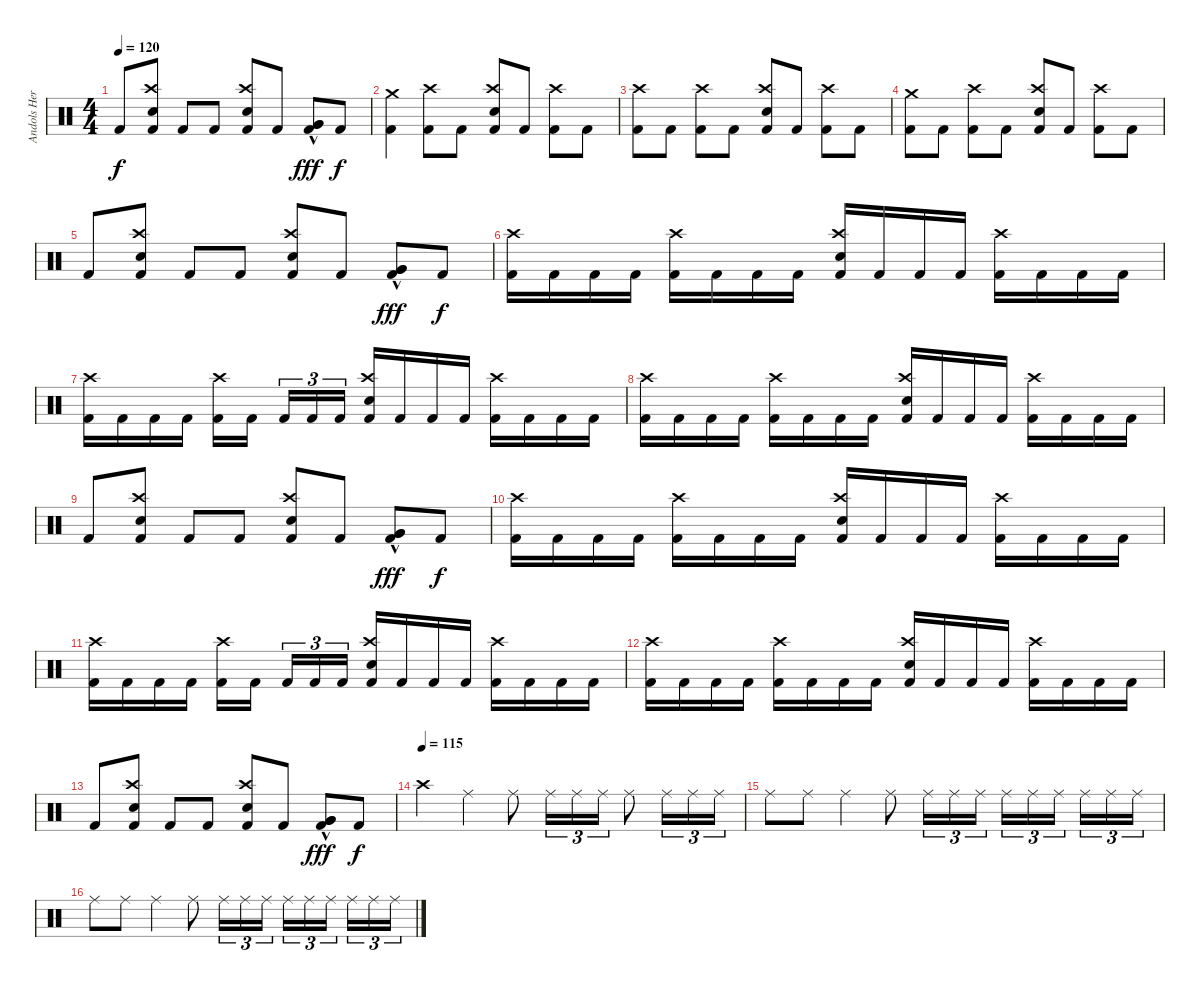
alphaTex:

\track ("Andols Herrick" "Andols Her") {instrument percussion}
\staff {score}
\articulation defaults
\ts (4 4)
\tempo 120
\clef neutral
\ks c "Kick (hit) 2".8{dy f}
("Crash high (hit)" "Electric Snare (hit)" "Kick (hit) 2").8 "Kick (hit) 2".8 "Kick (hit) 2".8 ("Crash high (hit)" "Electric Snare (hit)" "Kick (hit) 2").8 "Kick (hit) 2".8 ("Very Low Tom (hit)"{hac} "Very Low Tom (hit)"{hac} "Kick (hit) 2").8{dy fff} "Kick (hit) 2".8{dy f} |
("Crash medium (hit)" "Kick (hit) 2").4 ("Crash high (hit)" "Kick (hit) 2").8 "Kick (hit) 2".8 ("Crash high (hit)" "Electric Snare (hit)" "Kick (hit) 2").8 "Kick (hit) 2".8 ("Crash high (hit)" "Kick (hit) 2").8 "Kick (hit) 2".8 |
("Crash high (hit)" "Kick (hit) 2").8 "Kick (hit) 2".8 ("Crash high (hit)" "Kick (hit) 2").8 "Kick (hit) 2".8 ("Crash high (hit)" "Electric Snare (hit)" "Kick (hit) 2").8 "Kick (hit) 2".8 ("Crash high (hit)" "Kick (hit) 2").8 "Kick (hit) 2".8 |
("Crash medium (hit)" "Kick (hit) 2").8 "Kick (hit) 2".8 ("Crash high (hit)" "Kick (hit) 2").8 "Kick (hit) 2".8 ("Crash high (hit)" "Electric Snare (hit)" "Kick (hit) 2").8 "Kick (hit) 2".8 ("Crash high (hit)" "Kick (hit) 2").8 "Kick (hit) 2".8 |
"Kick (hit) 2".8 ("Crash high (hit)" "Electric Snare (hit)" "Kick (hit) 2").8 "Kick (hit) 2".8 "Kick (hit) 2".8 ("Crash high (hit)" "Electric Snare (hit)" "Kick (hit) 2").8 "Kick (hit) 2".8 ("Very Low Tom (hit)"{hac} "Very Low Tom (hit)"{hac} "Kick (hit) 2").8{dy fff} "Kick (hit) 2".8{dy f} |
("Crash high (hit)" "Kick (hit) 2").16 "Kick (hit) 2".16 "Kick (hit) 2".16 "Kick (hit) 2".16 ("Crash high (hit)" "Kick (hit) 2").16 "Kick (hit) 2".16 "Kick (hit) 2".16 "Kick (hit) 2".16 ("Crash high (hit)" "Electric Snare (hit)" "Kick (hit) 2").16 "Kick (hit) 2".16 "Kick (hit) 2".16 "Kick (hit) 2".16 ("Crash high (hit)" "Kick (hit) 2").16 "Kick (hit) 2".16 "Kick (hit) 2".16 "Kick (hit) 2".16 |
("Crash high (hit)" "Kick (hit) 2").16 "Kick (hit) 2".16 "Kick (hit) 2".16 "Kick (hit) 2".16 ("Crash high (hit)" "Kick (hit) 2").16 "Kick (hit) 2".16{beam splitsecondary} "Kick (hit) 2".16{tu (3 2)} "Kick (hit) 2".16{tu (3 2)} "Kick (hit) 2".16{tu (3 2)} ("Crash high (hit)" "Electric Snare (hit)" "Kick (hit) 2").16 "Kick (hit) 2".16 "Kick (hit) 2".16 "Kick (hit) 2".16 ("Crash high (hit)" "Kick (hit) 2").16 "Kick (hit) 2".16 "Kick (hit) 2".16 "Kick (hit) 2".16 |
("Crash high (hit)" "Kick (hit) 2").16 "Kick (hit) 2".16 "Kick (hit) 2".16 "Kick (hit) 2".16 ("Crash high (hit)" "Kick (hit) 2").16 "Kick (hit) 2".16 "Kick (hit) 2".16 "Kick (hit) 2".16 ("Crash high (hit)" "Electric Snare (hit)" "Kick (hit) 2").16 "Kick (hit) 2".16 "Kick (hit) 2".16 "Kick (hit) 2".16 ("Crash high (hit)" "Kick (hit) 2").16 "Kick (hit) 2".16 "Kick (hit) 2".16 "Kick (hit) 2".16 |
"Kick (hit) 2".8 ("Crash high (hit)" "Electric Snare (hit)" "Kick (hit) 2").8 "Kick (hit) 2".8 "Kick (hit) 2".8 ("Crash high (hit)" "Electric Snare (hit)" "Kick (hit) 2").8 "Kick (hit) 2".8 ("Very Low Tom (hit)"{hac} "Very Low Tom (hit)"{hac} "Kick (hit) 2").8{dy fff} "Kick (hit) 2".8{dy f} |
("Crash high (hit)" "Kick (hit) 2").16 "Kick (hit) 2".16 "Kick (hit) 2".16 "Kick (hit) 2".16 ("Crash high (hit)" "Kick (hit) 2").16 "Kick (hit) 2".16 "Kick (hit) 2".16 "Kick (hit) 2".16 ("Crash high (hit)" "Electric Snare (hit)" "Kick (hit) 2").16 "Kick (hit) 2".16 "Kick (hit) 2".16 "Kick (hit) 2".16 ("Crash high (hit)" "Kick (hit) 2").16 "Kick (hit) 2".16 "Kick (hit) 2".16 "Kick (hit) 2".16 |
("Crash high (hit)" "Kick (hit) 2").16 "Kick (hit) 2".16 "Kick (hit) 2".16 "Kick (hit) 2".16 ("Crash high (hit)" "Kick (hit) 2").16 "Kick (hit) 2".16{beam splitsecondary} "Kick (hit) 2".16{tu (3 2)} "Kick (hit) 2".16{tu (3 2)} "Kick (hit) 2".16{tu (3 2)} ("Crash high (hit)" "Electric Snare (hit)" "Kick (hit) 2").16 "Kick (hit) 2".16 "Kick (hit) 2".16 "Kick (hit) 2".16 ("Crash high (hit)" "Kick (hit) 2").16 "Kick (hit) 2".16 "Kick (hit) 2".16 "Kick (hit) 2".16 |
("Crash high (hit)" "Kick (hit) 2").16 "Kick (hit) 2".16 "Kick (hit) 2".16 "Kick (hit) 2".16 ("Crash high (hit)" "Kick (hit) 2").16 "Kick (hit) 2".16 "Kick (hit) 2".16 "Kick (hit) 2".16 ("Crash high (hit)" "Electric Snare (hit)" "Kick (hit) 2").16 "Kick (hit) 2".16 "Kick (hit) 2".16 "Kick (hit) 2".16 ("Crash high (hit)" "Kick (hit) 2").16 "Kick (hit) 2".16 "Kick (hit) 2".16 "Kick (hit) 2".16 |
"Kick (hit) 2".8 ("Crash high (hit)" "Electric Snare (hit)" "Kick (hit) 2").8 "Kick (hit) 2".8 "Kick (hit) 2".8 ("Crash high (hit)" "Electric Snare (hit)" "Kick (hit) 2").8 "Kick (hit) 2".8 ("Very Low Tom (hit)"{hac} "Very Low Tom (hit)"{hac} "Kick (hit) 2").8{dy fff} "Kick (hit) 2".8{dy f} |
\tempo (115)
"Crash high (hit)".4 "Ride (middle)".4 "Ride (middle)".8 "Ride (middle)".16{tu (3 2)} "Ride (middle)".16{tu (3 2)} "Ride (middle)".16{tu (3 2)} "Ride (middle)".8 "Ride (middle)".16{tu (3 2)} "Ride (middle)".16{tu (3 2)} "Ride (middle)".16{tu (3 2)} |
"Ride (middle)".8 "Ride (middle)".8 "Ride (middle)".4 "Ride (middle)".8 "Ride (middle)".16{tu (3 2)} "Ride (middle)".16{tu (3 2)} "Ride (middle)".16{tu (3 2)} "Ride (middle)".16{tu (3 2)} "Ride (middle)".16{tu (3 2)} "Ride (middle)".16{tu (3 2) beam splitsecondary} "Ride (middle)".16{tu (3 2)} "Ride (middle)".16{tu (3 2)} "Ride (middle)".16{tu (3 2)} |
"Ride (middle)".8 "Ride (middle)".8 "Ride (middle)".4 "Ride (middle)".8 "Ride (middle)".16{tu (3 2)} "Ride (middle)".16{tu (3 2)} "Ride (middle)".16{tu (3 2)} "Ride (middle)".16{tu (3 2)} "Ride (middle)".16{tu (3 2)} "Ride (middle)".16{tu (3 2) beam splitsecondary} "Ride (middle)".16{tu (3 2)} "Ride (middle)".16{tu (3 2)} "Ride (middle)".16{tu (3 2)}
